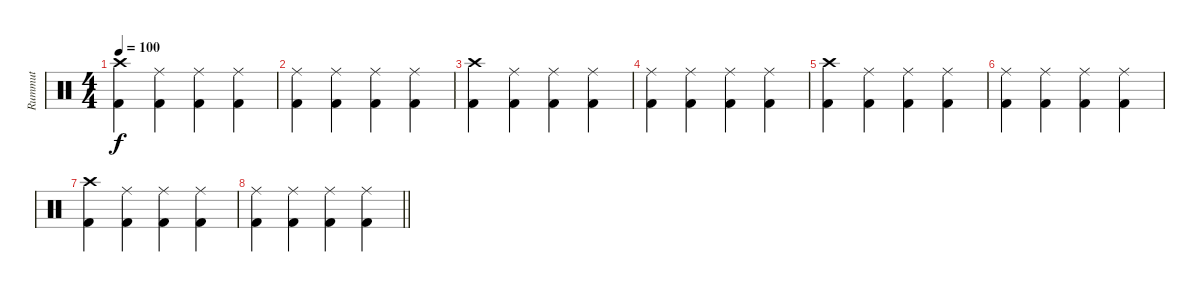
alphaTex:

\track ("Rummut" "Rummut") {instrument percussion}
\staff {score}
\articulation defaults
\ts (4 4)
\tempo 100
\clef neutral
\ks c
("Crash high (hit)" "Kick (hit) 2").4{dy f} ("Ride (middle)" "Kick (hit) 2").4 ("Ride (middle)" "Kick (hit) 2").4 ("Ride (middle)" "Kick (hit) 2").4 |
("Ride (middle)" "Kick (hit) 2").4 ("Ride (middle)" "Kick (hit) 2").4 ("Ride (middle)" "Kick (hit) 2").4 ("Ride (middle)" "Kick (hit) 2").4 |
("Crash high (hit)" "Kick (hit) 2").4 ("Ride (middle)" "Kick (hit) 2").4 ("Ride (middle)" "Kick (hit) 2").4 ("Ride (middle)" "Kick (hit) 2").4 |
("Ride (middle)" "Kick (hit) 2").4 ("Ride (middle)" "Kick (hit) 2").4 ("Ride (middle)" "Kick (hit) 2").4 ("Ride (middle)" "Kick (hit) 2").4 |
("Crash high (hit)" "Kick (hit) 2").4 ("Ride (middle)" "Kick (hit) 2").4 ("Ride (middle)" "Kick (hit) 2").4 ("Ride (middle)" "Kick (hit) 2").4 |
("Ride (middle)" "Kick (hit) 2").4 ("Ride (middle)" "Kick (hit) 2").4 ("Ride (middle)" "Kick (hit) 2").4 ("Ride (middle)" "Kick (hit) 2").4 |
("Crash high (hit)" "Kick (hit) 2").4 ("Ride (middle)" "Kick (hit) 2").4 ("Ride (middle)" "Kick (hit) 2").4 ("Ride (middle)" "Kick (hit) 2").4 |
\barLineRight lightlight
("Ride (middle)" "Kick (hit) 2").4 ("Ride (middle)" "Kick (hit) 2").4 ("Ride (middle)" "Kick (hit) 2").4 ("Ride (middle)" "Kick (hit) 2").4
